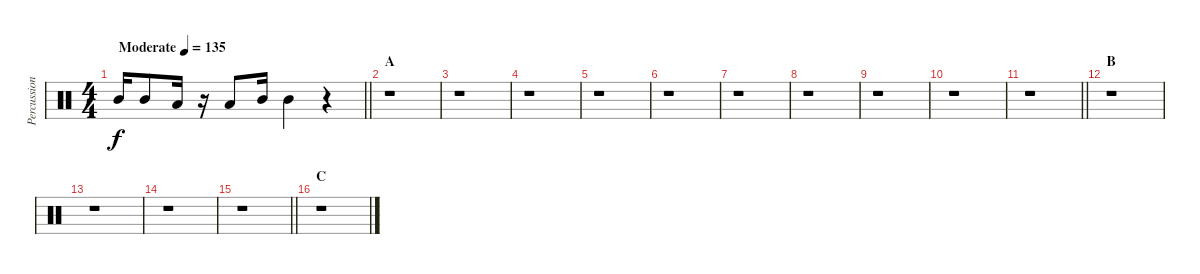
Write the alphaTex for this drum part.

\track ("Percussion" "Percussion") {instrument percussion}
\staff {score}
\articulation defaults
\ts (4 4)
\tempo (135 "Moderate")
\clef neutral
\barLineRight lightlight
\ks c "Mid Tom (hit)".16{dy f} "Mid Tom (hit)".8 "Low Tom (hit)".16
r.16 "Low Tom (hit)".8 "Mid Tom (hit)".16 "Mid Tom (hit)".4 r.4 |
\section ("" "A")
r.1 |
r.1 |
r.1 |
r.1 |
r.1 |
r.1 |
r.1 |
r.1 |
r.1 |
\barLineRight lightlight
r.1 |
\section ("" "B")
r.1 |
r.1 |
r.1 |
\barLineRight lightlight
r.1 |
\section ("" "C")
r.1
